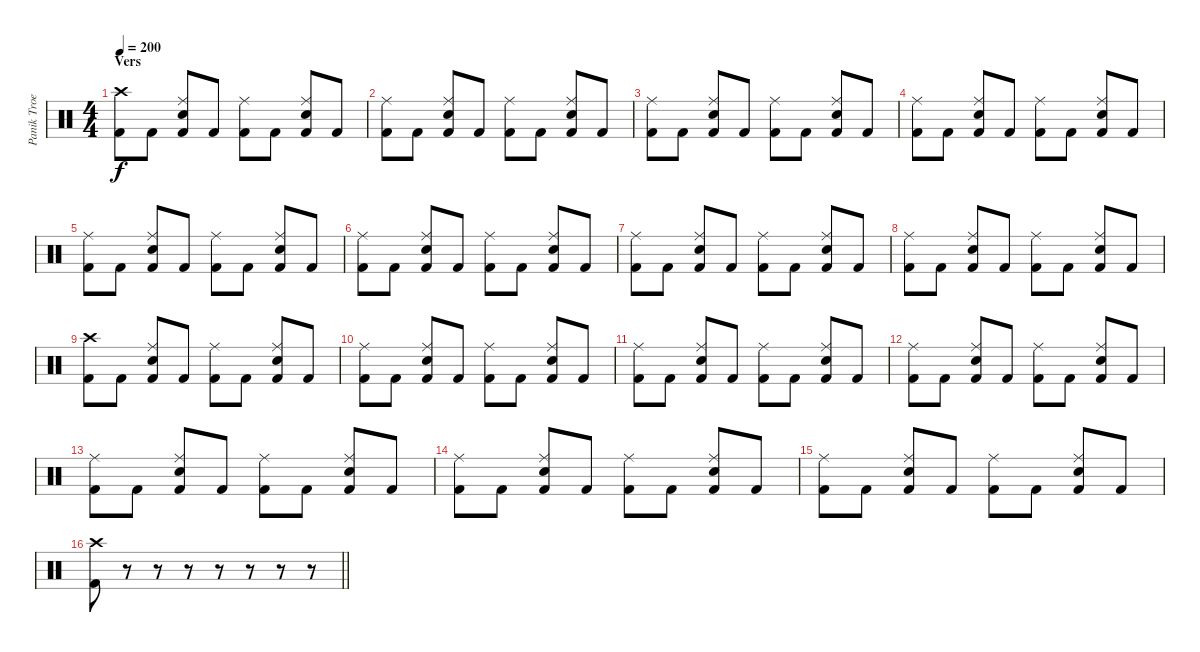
\track ("Panik Troels ( Dengang )" "Panik Troe") {instrument percussion}
\staff {score}
\articulation defaults
\ts (4 4)
\section ("" "Vers")
\tempo 200
\clef neutral
\ks c
("Kick (hit) 2" "Crash high (hit)").8{dy f} "Kick (hit) 2".8 ("Kick (hit) 2" "Ride (middle)" "Snare (hit) 2").8 "Kick (hit) 2".8 ("Kick (hit) 2" "Ride (middle)").8 "Kick (hit) 2".8 ("Kick (hit) 2" "Ride (middle)" "Snare (hit) 2").8 "Kick (hit) 2".8 |
("Kick (hit) 2" "Ride (middle)").8 "Kick (hit) 2".8 ("Kick (hit) 2" "Ride (middle)" "Snare (hit) 2").8 "Kick (hit) 2".8 ("Kick (hit) 2" "Ride (middle)").8 "Kick (hit) 2".8 ("Kick (hit) 2" "Ride (middle)" "Snare (hit) 2").8 "Kick (hit) 2".8 |
("Kick (hit) 2" "Ride (middle)").8 "Kick (hit) 2".8 ("Kick (hit) 2" "Ride (middle)" "Snare (hit) 2").8 "Kick (hit) 2".8 ("Kick (hit) 2" "Ride (middle)").8 "Kick (hit) 2".8 ("Kick (hit) 2" "Ride (middle)" "Snare (hit) 2").8 "Kick (hit) 2".8 |
("Kick (hit) 2" "Ride (middle)").8 "Kick (hit) 2".8 ("Kick (hit) 2" "Ride (middle)" "Snare (hit) 2").8 "Kick (hit) 2".8 ("Kick (hit) 2" "Ride (middle)").8 "Kick (hit) 2".8 ("Kick (hit) 2" "Ride (middle)" "Snare (hit) 2").8 "Kick (hit) 2".8 |
("Kick (hit) 2" "Ride (middle)").8 "Kick (hit) 2".8 ("Kick (hit) 2" "Ride (middle)" "Snare (hit) 2").8 "Kick (hit) 2".8 ("Kick (hit) 2" "Ride (middle)").8 "Kick (hit) 2".8 ("Kick (hit) 2" "Ride (middle)" "Snare (hit) 2").8 "Kick (hit) 2".8 |
("Kick (hit) 2" "Ride (middle)").8 "Kick (hit) 2".8 ("Kick (hit) 2" "Ride (middle)" "Snare (hit) 2").8 "Kick (hit) 2".8 ("Kick (hit) 2" "Ride (middle)").8 "Kick (hit) 2".8 ("Kick (hit) 2" "Ride (middle)" "Snare (hit) 2").8 "Kick (hit) 2".8 |
("Kick (hit) 2" "Ride (middle)").8 "Kick (hit) 2".8 ("Kick (hit) 2" "Ride (middle)" "Snare (hit) 2").8 "Kick (hit) 2".8 ("Kick (hit) 2" "Ride (middle)").8 "Kick (hit) 2".8 ("Kick (hit) 2" "Ride (middle)" "Snare (hit) 2").8 "Kick (hit) 2".8 |
("Kick (hit) 2" "Ride (middle)").8 "Kick (hit) 2".8 ("Kick (hit) 2" "Ride (middle)" "Snare (hit) 2").8 "Kick (hit) 2".8 ("Kick (hit) 2" "Ride (middle)").8 "Kick (hit) 2".8 ("Kick (hit) 2" "Ride (middle)" "Snare (hit) 2").8 "Kick (hit) 2".8 |
("Kick (hit) 2" "Crash high (hit)").8 "Kick (hit) 2".8 ("Kick (hit) 2" "Ride (middle)" "Snare (hit) 2").8 "Kick (hit) 2".8 ("Kick (hit) 2" "Ride (middle)").8 "Kick (hit) 2".8 ("Kick (hit) 2" "Ride (middle)" "Snare (hit) 2").8 "Kick (hit) 2".8 |
("Kick (hit) 2" "Ride (middle)").8 "Kick (hit) 2".8 ("Kick (hit) 2" "Ride (middle)" "Snare (hit) 2").8 "Kick (hit) 2".8 ("Kick (hit) 2" "Ride (middle)").8 "Kick (hit) 2".8 ("Kick (hit) 2" "Ride (middle)" "Snare (hit) 2").8 "Kick (hit) 2".8 |
("Kick (hit) 2" "Ride (middle)").8 "Kick (hit) 2".8 ("Kick (hit) 2" "Ride (middle)" "Snare (hit) 2").8 "Kick (hit) 2".8 ("Kick (hit) 2" "Ride (middle)").8 "Kick (hit) 2".8 ("Kick (hit) 2" "Ride (middle)" "Snare (hit) 2").8 "Kick (hit) 2".8 |
("Kick (hit) 2" "Ride (middle)").8 "Kick (hit) 2".8 ("Kick (hit) 2" "Ride (middle)" "Snare (hit) 2").8 "Kick (hit) 2".8 ("Kick (hit) 2" "Ride (middle)").8 "Kick (hit) 2".8 ("Kick (hit) 2" "Ride (middle)" "Snare (hit) 2").8 "Kick (hit) 2".8 |
("Kick (hit) 2" "Ride (middle)").8 "Kick (hit) 2".8 ("Kick (hit) 2" "Ride (middle)" "Snare (hit) 2").8 "Kick (hit) 2".8 ("Kick (hit) 2" "Ride (middle)").8 "Kick (hit) 2".8 ("Kick (hit) 2" "Ride (middle)" "Snare (hit) 2").8 "Kick (hit) 2".8 |
("Kick (hit) 2" "Ride (middle)").8 "Kick (hit) 2".8 ("Kick (hit) 2" "Ride (middle)" "Snare (hit) 2").8 "Kick (hit) 2".8 ("Kick (hit) 2" "Ride (middle)").8 "Kick (hit) 2".8 ("Kick (hit) 2" "Ride (middle)" "Snare (hit) 2").8 "Kick (hit) 2".8 |
("Kick (hit) 2" "Ride (middle)").8 "Kick (hit) 2".8 ("Kick (hit) 2" "Ride (middle)" "Snare (hit) 2").8 "Kick (hit) 2".8 ("Kick (hit) 2" "Ride (middle)").8 "Kick (hit) 2".8 ("Kick (hit) 2" "Ride (middle)" "Snare (hit) 2").8 "Kick (hit) 2".8 |
\barLineRight lightlight
("Kick (hit) 2" "Crash high (hit)").8 r.8 r.8 r.8 r.8 r.8 r.8 r.8
